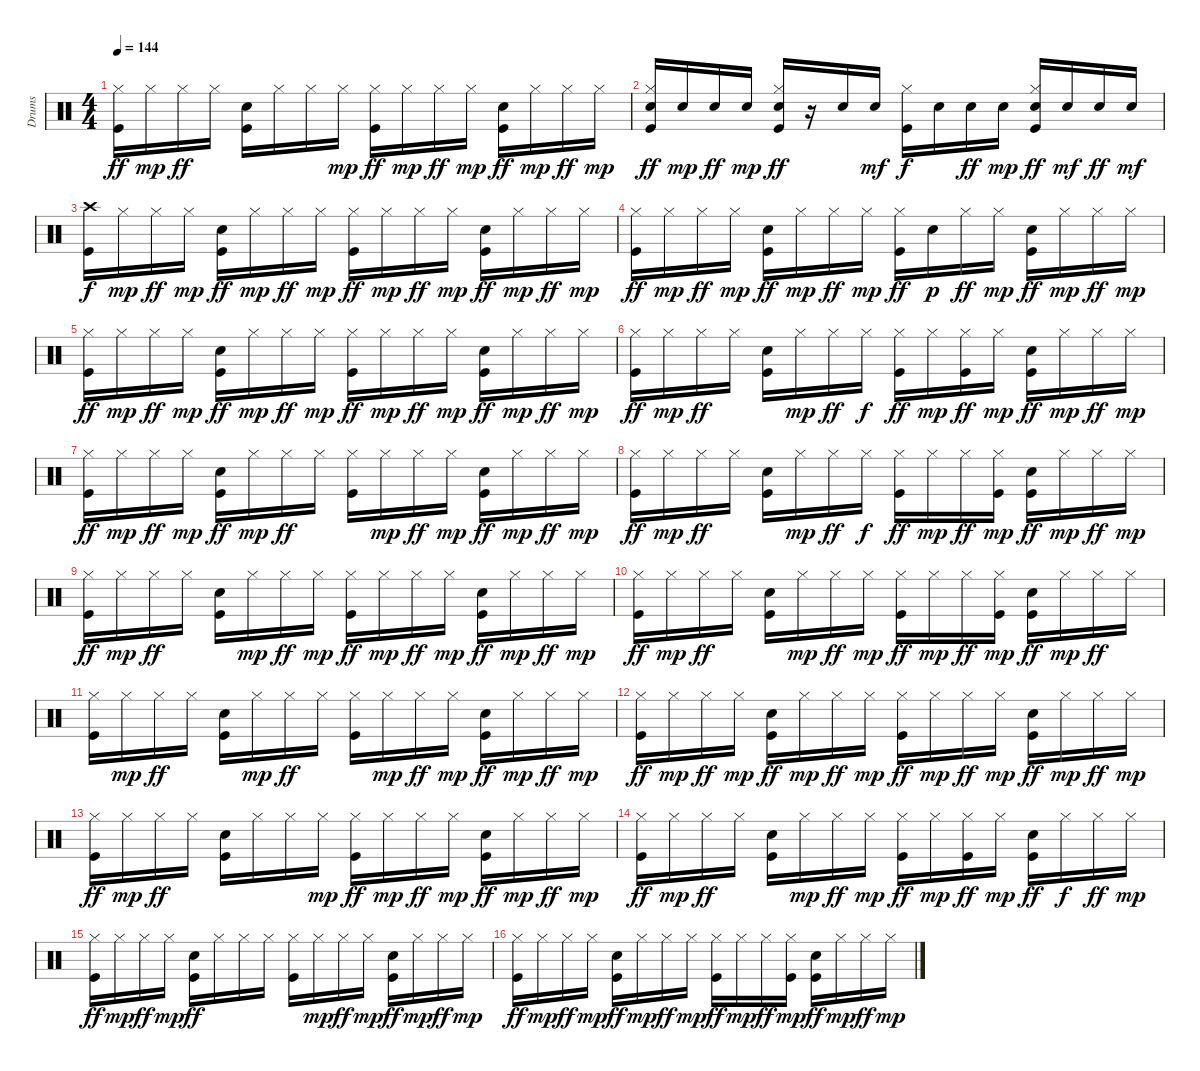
\track ("Drums" "Drums") {instrument percussion}
\staff {score}
\articulation defaults
\ts (4 4)
\tempo 144
\clef neutral
\ks c
("Kick (hit)" "Hi-Hat (closed)").16{dy ff} "Hi-Hat (closed)".16{dy mp} "Hi-Hat (closed)".16{dy ff} "Hi-Hat (closed)".16 ("Kick (hit)" "Snare (hit) 2").16 "Hi-Hat (closed)".16 "Hi-Hat (closed)".16 "Hi-Hat (closed)".16{dy mp} ("Kick (hit)" "Hi-Hat (closed)").16{dy ff} "Hi-Hat (closed)".16{dy mp} "Hi-Hat (closed)".16{dy ff} "Hi-Hat (closed)".16{dy mp} ("Kick (hit)" "Snare (hit) 2").16{dy ff} "Hi-Hat (closed)".16{dy mp} "Hi-Hat (closed)".16{dy ff} "Hi-Hat (closed)".16{dy mp} |
("Kick (hit)" "Snare (hit) 2" "Hi-Hat (closed)").16{dy ff} "Snare (hit) 2".16{dy mp} "Snare (hit) 2".16{dy ff} "Snare (hit) 2".16{dy mp} ("Kick (hit)" "Snare (hit) 2" "Hi-Hat (closed)").16{dy ff} r.16 "Snare (hit) 2".16 "Snare (hit) 2".16{dy mf} ("Kick (hit)" "Hi-Hat (closed)").16{dy f} "Snare (hit) 2".16 "Snare (hit) 2".16{dy ff} "Snare (hit) 2".16{dy mp} ("Kick (hit)" "Snare (hit) 2" "Hi-Hat (closed)").16{dy ff} "Snare (hit) 2".16{dy mf} "Snare (hit) 2".16{dy ff} "Snare (hit) 2".16{dy mf} |
("Kick (hit)" "Crash high (hit)").16{dy f} "Hi-Hat (closed)".16{dy mp} "Hi-Hat (closed)".16{dy ff} "Hi-Hat (closed)".16{dy mp} ("Kick (hit)" "Snare (hit) 2").16{dy ff} "Hi-Hat (closed)".16{dy mp} "Hi-Hat (closed)".16{dy ff} "Hi-Hat (closed)".16{dy mp} ("Kick (hit)" "Hi-Hat (closed)").16{dy ff} "Hi-Hat (closed)".16{dy mp} "Hi-Hat (closed)".16{dy ff} "Hi-Hat (closed)".16{dy mp} ("Kick (hit)" "Snare (hit) 2").16{dy ff} "Hi-Hat (closed)".16{dy mp} "Hi-Hat (closed)".16{dy ff} "Hi-Hat (closed)".16{dy mp} |
("Kick (hit)" "Hi-Hat (closed)").16{dy ff} "Hi-Hat (closed)".16{dy mp} "Hi-Hat (closed)".16{dy ff} "Hi-Hat (closed)".16{dy mp} ("Kick (hit)" "Snare (hit) 2").16{dy ff} "Hi-Hat (closed)".16{dy mp} "Hi-Hat (closed)".16{dy ff} "Hi-Hat (closed)".16{dy mp} ("Kick (hit)" "Hi-Hat (closed)").16{dy ff} "Snare (hit) 2".16{dy p} "Hi-Hat (closed)".16{dy ff} "Hi-Hat (closed)".16{dy mp} ("Kick (hit)" "Snare (hit) 2").16{dy ff} "Hi-Hat (closed)".16{dy mp} "Hi-Hat (closed)".16{dy ff} "Hi-Hat (closed)".16{dy mp} |
("Kick (hit)" "Hi-Hat (closed)").16{dy ff} "Hi-Hat (closed)".16{dy mp} "Hi-Hat (closed)".16{dy ff} "Hi-Hat (closed)".16{dy mp} ("Kick (hit)" "Snare (hit) 2").16{dy ff} "Hi-Hat (closed)".16{dy mp} "Hi-Hat (closed)".16{dy ff} "Hi-Hat (closed)".16{dy mp} ("Kick (hit)" "Hi-Hat (closed)").16{dy ff} "Hi-Hat (closed)".16{dy mp} "Hi-Hat (closed)".16{dy ff} "Hi-Hat (closed)".16{dy mp} ("Kick (hit)" "Snare (hit) 2").16{dy ff} "Hi-Hat (closed)".16{dy mp} "Hi-Hat (closed)".16{dy ff} "Hi-Hat (closed)".16{dy mp} |
("Kick (hit)" "Hi-Hat (closed)").16{dy ff} "Hi-Hat (closed)".16{dy mp} "Hi-Hat (closed)".16{dy ff} "Hi-Hat (closed)".16 ("Kick (hit)" "Snare (hit) 2").16 "Hi-Hat (closed)".16{dy mp} "Hi-Hat (closed)".16{dy ff} "Hi-Hat (closed)".16{dy f} ("Kick (hit)" "Hi-Hat (closed)").16{dy ff} "Hi-Hat (closed)".16{dy mp} ("Kick (hit)" "Hi-Hat (closed)").16{dy ff} "Hi-Hat (closed)".16{dy mp} ("Kick (hit)" "Snare (hit) 2").16{dy ff} "Hi-Hat (closed)".16{dy mp} "Hi-Hat (closed)".16{dy ff} "Hi-Hat (closed)".16{dy mp} |
("Kick (hit)" "Hi-Hat (closed)").16{dy ff} "Hi-Hat (closed)".16{dy mp} "Hi-Hat (closed)".16{dy ff} "Hi-Hat (closed)".16{dy mp} ("Kick (hit)" "Snare (hit) 2").16{dy ff} "Hi-Hat (closed)".16{dy mp} "Hi-Hat (closed)".16{dy ff} "Hi-Hat (closed)".16 ("Kick (hit)" "Hi-Hat (closed)").16 "Hi-Hat (closed)".16{dy mp} "Hi-Hat (closed)".16{dy ff} "Hi-Hat (closed)".16{dy mp} ("Kick (hit)" "Snare (hit) 2").16{dy ff} "Hi-Hat (closed)".16{dy mp} "Hi-Hat (closed)".16{dy ff} "Hi-Hat (closed)".16{dy mp} |
("Kick (hit)" "Hi-Hat (closed)").16{dy ff} "Hi-Hat (closed)".16{dy mp} "Hi-Hat (closed)".16{dy ff} "Hi-Hat (closed)".16 ("Kick (hit)" "Snare (hit) 2").16 "Hi-Hat (closed)".16{dy mp} "Hi-Hat (closed)".16{dy ff} "Hi-Hat (closed)".16{dy f} ("Kick (hit)" "Hi-Hat (closed)").16{dy ff} "Hi-Hat (closed)".16{dy mp} "Hi-Hat (closed)".16{dy ff} ("Kick (hit)" "Hi-Hat (closed)").16{dy mp} ("Kick (hit)" "Snare (hit) 2").16{dy ff} "Hi-Hat (closed)".16{dy mp} "Hi-Hat (closed)".16{dy ff} "Hi-Hat (closed)".16{dy mp} |
("Kick (hit)" "Hi-Hat (closed)").16{dy ff} "Hi-Hat (closed)".16{dy mp} "Hi-Hat (closed)".16{dy ff} "Hi-Hat (closed)".16 ("Kick (hit)" "Snare (hit) 2").16 "Hi-Hat (closed)".16{dy mp} "Hi-Hat (closed)".16{dy ff} "Hi-Hat (closed)".16{dy mp} ("Kick (hit)" "Hi-Hat (closed)").16{dy ff} "Hi-Hat (closed)".16{dy mp} "Hi-Hat (closed)".16{dy ff} "Hi-Hat (closed)".16{dy mp} ("Kick (hit)" "Snare (hit) 2").16{dy ff} "Hi-Hat (closed)".16{dy mp} "Hi-Hat (closed)".16{dy ff} "Hi-Hat (closed)".16{dy mp} |
("Kick (hit)" "Hi-Hat (closed)").16{dy ff} "Hi-Hat (closed)".16{dy mp} "Hi-Hat (closed)".16{dy ff} "Hi-Hat (closed)".16 ("Kick (hit)" "Snare (hit) 2").16 "Hi-Hat (closed)".16{dy mp} "Hi-Hat (closed)".16{dy ff} "Hi-Hat (closed)".16{dy mp} ("Kick (hit)" "Hi-Hat (closed)").16{dy ff} "Hi-Hat (closed)".16{dy mp} "Hi-Hat (closed)".16{dy ff} ("Kick (hit)" "Hi-Hat (closed)").16{dy mp} ("Kick (hit)" "Snare (hit) 2").16{dy ff} "Hi-Hat (closed)".16{dy mp} "Hi-Hat (closed)".16{dy ff} "Hi-Hat (closed)".16 |
("Kick (hit)" "Hi-Hat (closed)").16 "Hi-Hat (closed)".16{dy mp} "Hi-Hat (closed)".16{dy ff} "Hi-Hat (closed)".16 ("Kick (hit)" "Snare (hit) 2").16 "Hi-Hat (closed)".16{dy mp} "Hi-Hat (closed)".16{dy ff} "Hi-Hat (closed)".16 ("Kick (hit)" "Hi-Hat (closed)").16 "Hi-Hat (closed)".16{dy mp} "Hi-Hat (closed)".16{dy ff} "Hi-Hat (closed)".16{dy mp} ("Kick (hit)" "Snare (hit) 2").16{dy ff} "Hi-Hat (closed)".16{dy mp} "Hi-Hat (closed)".16{dy ff} "Hi-Hat (closed)".16{dy mp} |
("Kick (hit)" "Hi-Hat (closed)").16{dy ff} "Hi-Hat (closed)".16{dy mp} "Hi-Hat (closed)".16{dy ff} "Hi-Hat (closed)".16{dy mp} ("Kick (hit)" "Snare (hit) 2").16{dy ff} "Hi-Hat (closed)".16{dy mp} "Hi-Hat (closed)".16{dy ff} "Hi-Hat (closed)".16{dy mp} ("Kick (hit)" "Hi-Hat (closed)").16{dy ff} "Hi-Hat (closed)".16{dy mp} "Hi-Hat (closed)".16{dy ff} "Hi-Hat (closed)".16{dy mp} ("Kick (hit)" "Snare (hit) 2").16{dy ff} "Hi-Hat (closed)".16{dy mp} "Hi-Hat (closed)".16{dy ff} "Hi-Hat (closed)".16{dy mp} |
("Kick (hit)" "Hi-Hat (closed)").16{dy ff} "Hi-Hat (closed)".16{dy mp} "Hi-Hat (closed)".16{dy ff} "Hi-Hat (closed)".16 ("Kick (hit)" "Snare (hit) 2").16 "Hi-Hat (closed)".16 "Hi-Hat (closed)".16 "Hi-Hat (closed)".16{dy mp} ("Kick (hit)" "Hi-Hat (closed)").16{dy ff} "Hi-Hat (closed)".16{dy mp} "Hi-Hat (closed)".16{dy ff} "Hi-Hat (closed)".16{dy mp} ("Kick (hit)" "Snare (hit) 2").16{dy ff} "Hi-Hat (closed)".16{dy mp} "Hi-Hat (closed)".16{dy ff} "Hi-Hat (closed)".16{dy mp} |
("Kick (hit)" "Hi-Hat (closed)").16{dy ff} "Hi-Hat (closed)".16{dy mp} "Hi-Hat (closed)".16{dy ff} "Hi-Hat (closed)".16 ("Kick (hit)" "Snare (hit) 2").16 "Hi-Hat (closed)".16{dy mp} "Hi-Hat (closed)".16{dy ff} "Hi-Hat (closed)".16{dy mp} ("Kick (hit)" "Hi-Hat (closed)").16{dy ff} "Hi-Hat (closed)".16{dy mp} ("Kick (hit)" "Hi-Hat (closed)").16{dy ff} "Hi-Hat (closed)".16{dy mp} ("Kick (hit)" "Snare (hit) 2").16{dy ff} "Hi-Hat (closed)".16{dy f} "Hi-Hat (closed)".16{dy ff} "Hi-Hat (closed)".16{dy mp} |
("Kick (hit)" "Hi-Hat (closed)").16{dy ff} "Hi-Hat (closed)".16{dy mp} "Hi-Hat (closed)".16{dy ff} "Hi-Hat (closed)".16{dy mp} ("Kick (hit)" "Snare (hit) 2").16{dy ff} "Hi-Hat (closed)".16 "Hi-Hat (closed)".16 "Hi-Hat (closed)".16 ("Kick (hit)" "Hi-Hat (closed)").16 "Hi-Hat (closed)".16{dy mp} "Hi-Hat (closed)".16{dy ff} "Hi-Hat (closed)".16{dy mp} ("Kick (hit)" "Snare (hit) 2").16{dy ff} "Hi-Hat (closed)".16{dy mp} "Hi-Hat (closed)".16{dy ff} "Hi-Hat (closed)".16{dy mp} |
("Kick (hit)" "Hi-Hat (closed)").16{dy ff} "Hi-Hat (closed)".16{dy mp} "Hi-Hat (closed)".16{dy ff} "Hi-Hat (closed)".16{dy mp} ("Kick (hit)" "Snare (hit) 2").16{dy ff} "Hi-Hat (closed)".16{dy mp} "Hi-Hat (closed)".16{dy ff} "Hi-Hat (closed)".16{dy mp} ("Kick (hit)" "Hi-Hat (closed)").16{dy ff} "Hi-Hat (closed)".16{dy mp} "Hi-Hat (closed)".16{dy ff} ("Kick (hit)" "Hi-Hat (closed)").16{dy mp} ("Kick (hit)" "Snare (hit) 2").16{dy ff} "Hi-Hat (closed)".16{dy mp} "Hi-Hat (closed)".16{dy ff} "Hi-Hat (closed)".16{dy mp}
